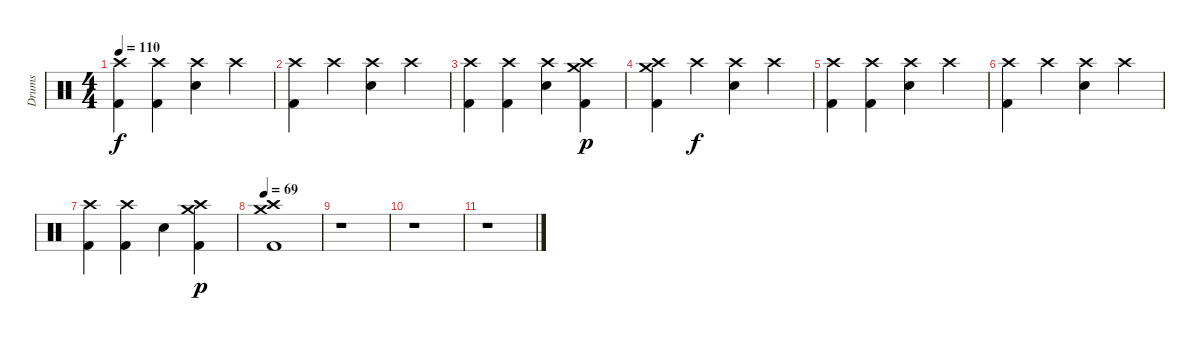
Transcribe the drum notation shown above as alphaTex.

\track ("Drums" "Drums") {instrument percussion}
\staff {score}
\articulation defaults
\ts (4 4)
\tempo 110
\clef neutral
\ks c
("Crash high (hit)" "Kick (hit) 2").4{dy f} ("Crash high (hit)" "Kick (hit) 2").4 ("Crash high (hit)" "Snare (hit) 2").4 "Crash high (hit)".4 |
("Crash high (hit)" "Kick (hit) 2").4 "Crash high (hit)".4 ("Crash high (hit)" "Snare (hit) 2").4 "Crash high (hit)".4 |
("Crash high (hit)" "Kick (hit) 2").4 ("Crash high (hit)" "Kick (hit) 2").4 ("Crash high (hit)" "Snare (hit) 2").4 ("Crash medium (hit)" "Crash high (hit)" "Kick (hit) 2").4{dy p} |
("Crash medium (hit)" "Crash high (hit)" "Kick (hit) 2").4 "Crash high (hit)".4{dy f} ("Crash high (hit)" "Snare (hit) 2").4 "Crash high (hit)".4 |
("Crash high (hit)" "Kick (hit) 2").4 ("Crash high (hit)" "Kick (hit) 2").4 ("Crash high (hit)" "Snare (hit) 2").4 "Crash high (hit)".4 |
("Crash high (hit)" "Kick (hit) 2").4 "Crash high (hit)".4 ("Crash high (hit)" "Snare (hit) 2").4 "Crash high (hit)".4 |
("Crash high (hit)" "Kick (hit) 2").4 ("Crash high (hit)" "Kick (hit) 2").4 "Snare (hit) 2".4 ("Crash medium (hit)" "Crash high (hit)" "Kick (hit) 2").4{dy p} |
\tempo 69
("Crash medium (hit)" "Crash high (hit)" "Kick (hit) 2").1 |
r.1 |
r.1 |
r.1
